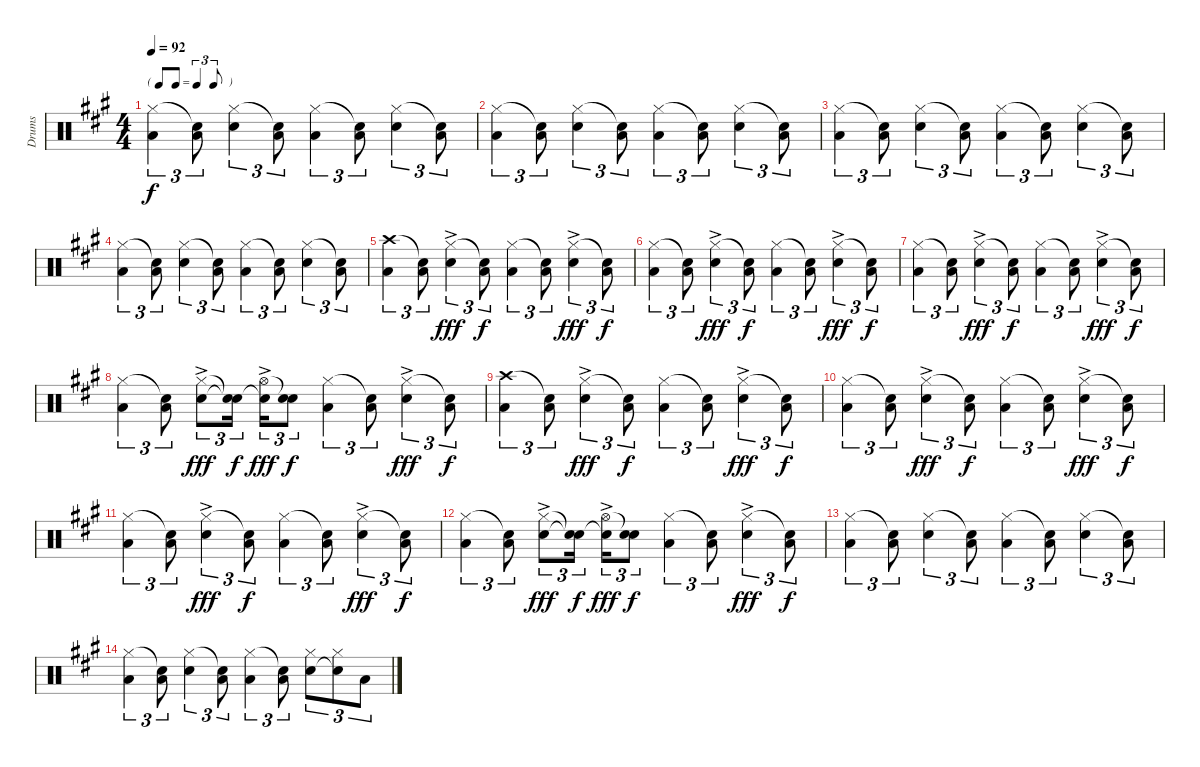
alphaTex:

\track ("Drums" "Drums") {instrument percussion}
\staff {score}
\articulation defaults
\ts (4 4)
\tf triplet8th
\tempo 92
\clef neutral
\ks f#minor
("Hi-Hat (closed)" "Low Tom (hit)").4{tu (3 2) dy f} ("Snare (hit)"{t} "Low Tom (hit)").8{tu (3 2)} ("Hi-Hat (closed)" "Snare (hit) 2").4{tu (3 2)} ("Snare (hit)"{t} "Low Tom (hit)").8{tu (3 2)} ("Hi-Hat (closed)" "Low Tom (hit)").4{tu (3 2)} ("Snare (hit)"{t} "Low Tom (hit)").8{tu (3 2)} ("Hi-Hat (closed)" "Snare (hit) 2").4{tu (3 2)} ("Snare (hit)"{t} "Low Tom (hit)").8{tu (3 2)} |
("Hi-Hat (closed)" "Low Tom (hit)").4{tu (3 2)} ("Snare (hit)"{t} "Low Tom (hit)").8{tu (3 2)} ("Hi-Hat (closed)" "Snare (hit) 2").4{tu (3 2)} ("Snare (hit)"{t} "Low Tom (hit)").8{tu (3 2)} ("Hi-Hat (closed)" "Low Tom (hit)").4{tu (3 2)} ("Snare (hit)"{t} "Low Tom (hit)").8{tu (3 2)} ("Hi-Hat (closed)" "Snare (hit) 2").4{tu (3 2)} ("Snare (hit)"{t} "Low Tom (hit)").8{tu (3 2)} |
("Hi-Hat (closed)" "Low Tom (hit)").4{tu (3 2)} ("Snare (hit)"{t} "Low Tom (hit)").8{tu (3 2)} ("Hi-Hat (closed)" "Snare (hit) 2").4{tu (3 2)} ("Snare (hit)"{t} "Low Tom (hit)").8{tu (3 2)} ("Hi-Hat (closed)" "Low Tom (hit)").4{tu (3 2)} ("Snare (hit)"{t} "Low Tom (hit)").8{tu (3 2)} ("Hi-Hat (closed)" "Snare (hit) 2").4{tu (3 2)} ("Snare (hit)"{t} "Low Tom (hit)").8{tu (3 2)} |
("Hi-Hat (closed)" "Low Tom (hit)").4{tu (3 2)} ("Snare (hit)"{t} "Low Tom (hit)").8{tu (3 2)} ("Hi-Hat (closed)" "Snare (hit) 2").4{tu (3 2)} ("Snare (hit)"{t} "Low Tom (hit)").8{tu (3 2)} ("Hi-Hat (closed)" "Low Tom (hit)").4{tu (3 2)} ("Snare (hit)"{t} "Low Tom (hit)").8{tu (3 2)} ("Hi-Hat (closed)" "Snare (hit) 2").4{tu (3 2)} ("Snare (hit)"{t} "Low Tom (hit)").8{tu (3 2)} |
("Crash high (hit)" "Low Tom (hit)").4{tu (3 2)} ("Snare (hit)"{t} "Low Tom (hit)").8{tu (3 2)} ("Hi-Hat (closed)"{ac} "Snare (hit) 2").4{tu (3 2) dy fff} ("Snare (hit)"{t} "Low Tom (hit)").8{tu (3 2) dy f} ("Hi-Hat (closed)" "Low Tom (hit)").4{tu (3 2)} ("Snare (hit)"{t} "Low Tom (hit)").8{tu (3 2)} ("Hi-Hat (closed)"{ac} "Snare (hit) 2").4{tu (3 2) dy fff} ("Snare (hit)"{t} "Low Tom (hit)").8{tu (3 2) dy f} |
("Hi-Hat (closed)" "Low Tom (hit)").4{tu (3 2)} ("Snare (hit)"{t} "Low Tom (hit)").8{tu (3 2)} ("Hi-Hat (closed)"{ac} "Snare (hit) 2").4{tu (3 2) dy fff} ("Snare (hit)"{t} "Low Tom (hit)").8{tu (3 2) dy f} ("Hi-Hat (closed)" "Low Tom (hit)").4{tu (3 2)} ("Snare (hit)"{t} "Low Tom (hit)").8{tu (3 2)} ("Hi-Hat (closed)"{ac} "Snare (hit) 2").4{tu (3 2) dy fff} ("Snare (hit)"{t} "Low Tom (hit)").8{tu (3 2) dy f} |
("Hi-Hat (closed)" "Low Tom (hit)").4{tu (3 2) volume 5} ("Snare (hit)"{t} "Low Tom (hit)").8{tu (3 2)} ("Hi-Hat (closed)"{ac} "Snare (hit) 2").4{tu (3 2) dy fff} ("Snare (hit)"{t} "Low Tom (hit)").8{tu (3 2) dy f} ("Hi-Hat (closed)" "Low Tom (hit)").4{tu (3 2)} ("Snare (hit)"{t} "Low Tom (hit)").8{tu (3 2)} ("Hi-Hat (closed)"{ac} "Snare (hit) 2").4{tu (3 2) dy fff} ("Snare (hit)"{t} "Low Tom (hit)").8{tu (3 2) dy f} |
("Hi-Hat (closed)" "Low Tom (hit)").4{tu (3 2)} ("Snare (hit)"{t} "Low Tom (hit)").8{tu (3 2)} ("Hi-Hat (closed)"{ac} "Snare (hit) 2").8{tu (3 2) dy fff} ("Snare (hit)"{t} "Snare (hit)"{t}).16{tu (3 2) dy f} ("Hi-Hat (open)"{ac} "Snare (hit)"{t}).16{tu (3 2) dy fff} ("Snare (hit)"{t} "Snare (hit) 2").8{tu (3 2) dy f} ("Hi-Hat (closed)" "Low Tom (hit)").4{tu (3 2)} ("Snare (hit)"{t} "Low Tom (hit)").8{tu (3 2)} ("Hi-Hat (closed)"{ac} "Snare (hit) 2").4{tu (3 2) dy fff} ("Snare (hit)"{t} "Low Tom (hit)").8{tu (3 2) dy f} |
("Crash high (hit)" "Low Tom (hit)").4{tu (3 2)} ("Snare (hit)"{t} "Low Tom (hit)").8{tu (3 2)} ("Hi-Hat (closed)"{ac} "Snare (hit) 2").4{tu (3 2) dy fff} ("Snare (hit)"{t} "Low Tom (hit)").8{tu (3 2) dy f} ("Hi-Hat (closed)" "Low Tom (hit)").4{tu (3 2)} ("Snare (hit)"{t} "Low Tom (hit)").8{tu (3 2)} ("Hi-Hat (closed)"{ac} "Snare (hit) 2").4{tu (3 2) dy fff} ("Snare (hit)"{t} "Low Tom (hit)").8{tu (3 2) dy f} |
("Hi-Hat (closed)" "Low Tom (hit)").4{tu (3 2)} ("Snare (hit)"{t} "Low Tom (hit)").8{tu (3 2)} ("Hi-Hat (closed)"{ac} "Snare (hit) 2").4{tu (3 2) dy fff} ("Snare (hit)"{t} "Low Tom (hit)").8{tu (3 2) dy f} ("Hi-Hat (closed)" "Low Tom (hit)").4{tu (3 2)} ("Snare (hit)"{t} "Low Tom (hit)").8{tu (3 2)} ("Hi-Hat (closed)"{ac} "Snare (hit) 2").4{tu (3 2) dy fff} ("Snare (hit)"{t} "Low Tom (hit)").8{tu (3 2) dy f} |
("Hi-Hat (closed)" "Low Tom (hit)").4{tu (3 2)} ("Snare (hit)"{t} "Low Tom (hit)").8{tu (3 2)} ("Hi-Hat (closed)"{ac} "Snare (hit) 2").4{tu (3 2) dy fff} ("Snare (hit)"{t} "Low Tom (hit)").8{tu (3 2) dy f} ("Hi-Hat (closed)" "Low Tom (hit)").4{tu (3 2)} ("Snare (hit)"{t} "Low Tom (hit)").8{tu (3 2)} ("Hi-Hat (closed)"{ac} "Snare (hit) 2").4{tu (3 2) dy fff} ("Snare (hit)"{t} "Low Tom (hit)").8{tu (3 2) dy f} |
("Hi-Hat (closed)" "Low Tom (hit)").4{tu (3 2)} ("Snare (hit)"{t} "Low Tom (hit)").8{tu (3 2)} ("Hi-Hat (closed)"{ac} "Snare (hit) 2").8{tu (3 2) dy fff} ("Snare (hit)"{t} "Snare (hit)"{t}).16{tu (3 2) dy f} ("Hi-Hat (open)"{ac} "Snare (hit)"{t}).16{tu (3 2) dy fff} ("Snare (hit)"{t} "Snare (hit) 2").8{tu (3 2) dy f} ("Hi-Hat (closed)" "Low Tom (hit)").4{tu (3 2)} ("Snare (hit)"{t} "Low Tom (hit)").8{tu (3 2)} ("Hi-Hat (closed)"{ac} "Snare (hit) 2").4{tu (3 2) dy fff} ("Snare (hit)"{t} "Low Tom (hit)").8{tu (3 2) dy f} |
("Hi-Hat (closed)" "Low Tom (hit)").4{tu (3 2) volume 0} ("Snare (hit)"{t} "Low Tom (hit)").8{tu (3 2)} ("Hi-Hat (closed)" "Snare (hit) 2").4{tu (3 2)} ("Snare (hit)"{t} "Low Tom (hit)").8{tu (3 2)} ("Hi-Hat (closed)" "Low Tom (hit)").4{tu (3 2)} ("Snare (hit)"{t} "Low Tom (hit)").8{tu (3 2)} ("Hi-Hat (closed)" "Snare (hit) 2").4{tu (3 2)} ("Snare (hit)"{t} "Low Tom (hit)").8{tu (3 2)} |
("Hi-Hat (closed)" "Low Tom (hit)").4{tu (3 2)} ("Snare (hit)"{t} "Low Tom (hit)").8{tu (3 2)} ("Hi-Hat (closed)" "Snare (hit) 2").4{tu (3 2)} ("Snare (hit)"{t} "Low Tom (hit)").8{tu (3 2)} ("Hi-Hat (closed)" "Low Tom (hit)").4{tu (3 2)} ("Snare (hit)"{t} "Low Tom (hit)").8{tu (3 2)} ("Hi-Hat (closed)" "Snare (hit) 2").8{tu (3 2)} ("Hi-Hat (closed)" "Snare (hit)"{t}).8{tu (3 2)} "Low Tom (hit)".8{tu (3 2)}
